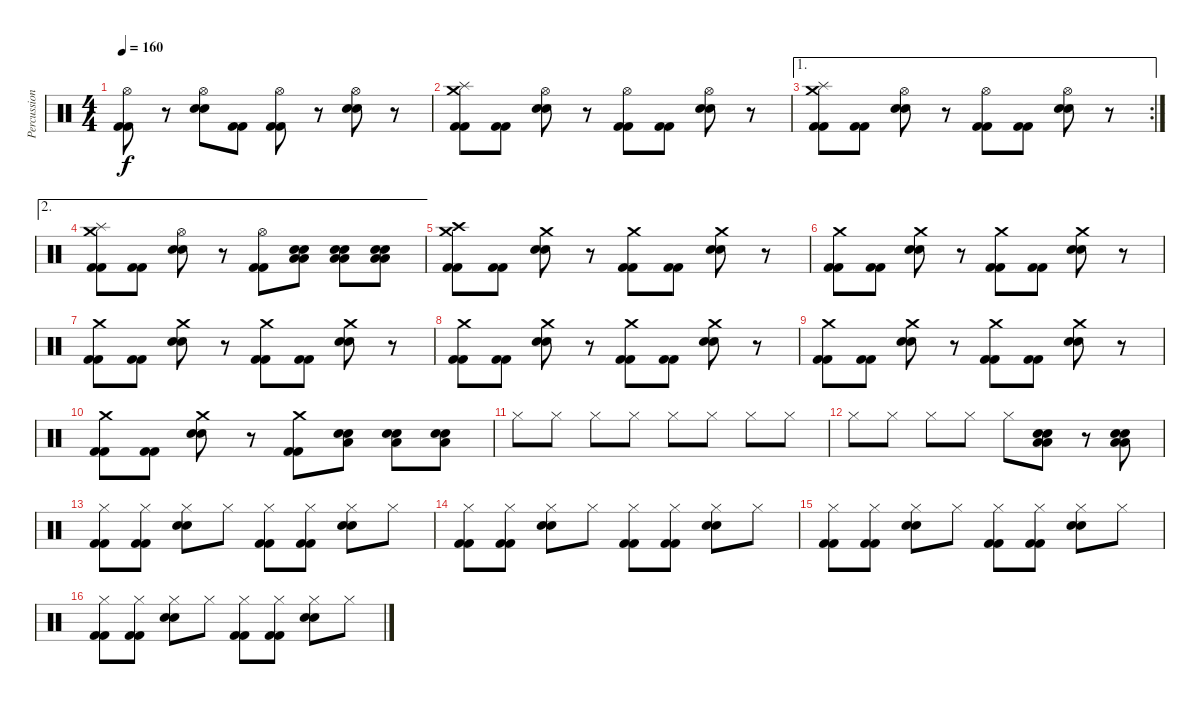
\track ("Percussion" "Percussion") {instrument percussion}
\staff {score}
\articulation defaults
\ts (4 4)
\tempo 160
\clef neutral
\ks c
("Hi-Hat (open)" "Kick (hit) 2" "Kick (hit) 2").8{dy f} r.8 ("Hi-Hat (open)" "Snare (hit) 2" "Snare (hit) 2").8 ("Kick (hit) 2" "Kick (hit) 2").8 ("Hi-Hat (open)" "Kick (hit) 2" "Kick (hit) 2").8 r.8 ("Hi-Hat (open)" "Snare (hit) 2" "Snare (hit) 2").8 r.8 |
("Crash medium (hit)" "Splash (hit)" "Kick (hit) 2" "Kick (hit) 2").8 ("Kick (hit) 2" "Kick (hit) 2").8 ("Hi-Hat (open)" "Snare (hit) 2" "Snare (hit) 2").8 r.8 ("Hi-Hat (open)" "Kick (hit) 2" "Kick (hit) 2").8 ("Kick (hit) 2" "Kick (hit) 2").8 ("Hi-Hat (open)" "Snare (hit) 2" "Snare (hit) 2").8 r.8 |
\ae 1
\rc 2
("Crash medium (hit)" "Splash (hit)" "Kick (hit) 2" "Kick (hit) 2").8 ("Kick (hit) 2" "Kick (hit) 2").8 ("Hi-Hat (open)" "Snare (hit) 2" "Snare (hit) 2").8 r.8 ("Hi-Hat (open)" "Kick (hit) 2" "Kick (hit) 2").8 ("Kick (hit) 2" "Kick (hit) 2").8 ("Hi-Hat (open)" "Snare (hit) 2" "Snare (hit) 2").8 r.8 |
\ae 2
("Crash medium (hit)" "Splash (hit)" "Kick (hit) 2" "Kick (hit) 2").8 ("Kick (hit) 2" "Kick (hit) 2").8 ("Hi-Hat (open)" "Snare (hit) 2" "Snare (hit) 2").8 r.8 ("Hi-Hat (open)" "Kick (hit) 2" "Kick (hit) 2").8 ("Low Floor Tom (hit)" "Low Floor Tom (hit)" "Snare (hit) 2" "Snare (hit) 2").8 ("Low Floor Tom (hit)" "Low Floor Tom (hit)" "Snare (hit) 2" "Snare (hit) 2").8 ("Low Floor Tom (hit)" "Low Floor Tom (hit)" "Snare (hit) 2" "Snare (hit) 2").8 |
("Crash medium (hit)" "Crash high (hit)" "Kick (hit) 2" "Kick (hit) 2").8 ("Kick (hit) 2" "Kick (hit) 2").8 ("Crash medium (hit)" "Snare (hit) 2" "Snare (hit) 2").8 r.8 ("Crash medium (hit)" "Kick (hit) 2" "Kick (hit) 2").8 ("Kick (hit) 2" "Kick (hit) 2").8 ("Crash medium (hit)" "Snare (hit) 2" "Snare (hit) 2").8 r.8 |
("Crash medium (hit)" "Kick (hit) 2" "Kick (hit) 2").8 ("Kick (hit) 2" "Kick (hit) 2").8 ("Crash medium (hit)" "Snare (hit) 2" "Snare (hit) 2").8 r.8 ("Crash medium (hit)" "Kick (hit) 2" "Kick (hit) 2").8 ("Kick (hit) 2" "Kick (hit) 2").8 ("Crash medium (hit)" "Snare (hit) 2" "Snare (hit) 2").8 r.8 |
("Crash medium (hit)" "Kick (hit) 2" "Kick (hit) 2").8 ("Kick (hit) 2" "Kick (hit) 2").8 ("Crash medium (hit)" "Snare (hit) 2" "Snare (hit) 2").8 r.8 ("Crash medium (hit)" "Kick (hit) 2" "Kick (hit) 2").8 ("Kick (hit) 2" "Kick (hit) 2").8 ("Crash medium (hit)" "Snare (hit) 2" "Snare (hit) 2").8 r.8 |
("Crash medium (hit)" "Kick (hit) 2" "Kick (hit) 2").8 ("Kick (hit) 2" "Kick (hit) 2").8 ("Crash medium (hit)" "Snare (hit) 2" "Snare (hit) 2").8 r.8 ("Crash medium (hit)" "Kick (hit) 2" "Kick (hit) 2").8 ("Kick (hit) 2" "Kick (hit) 2").8 ("Crash medium (hit)" "Snare (hit) 2" "Snare (hit) 2").8 r.8 |
("Crash medium (hit)" "Kick (hit) 2" "Kick (hit) 2").8 ("Kick (hit) 2" "Kick (hit) 2").8 ("Crash medium (hit)" "Snare (hit) 2" "Snare (hit) 2").8 r.8 ("Crash medium (hit)" "Kick (hit) 2" "Kick (hit) 2").8 ("Kick (hit) 2" "Kick (hit) 2").8 ("Crash medium (hit)" "Snare (hit) 2" "Snare (hit) 2").8 r.8 |
("Crash medium (hit)" "Kick (hit) 2" "Kick (hit) 2").8 ("Kick (hit) 2" "Kick (hit) 2").8 ("Crash medium (hit)" "Snare (hit) 2" "Snare (hit) 2").8 r.8 ("Crash medium (hit)" "Kick (hit) 2" "Kick (hit) 2").8 ("Low Floor Tom (hit)" "Snare (hit) 2" "Snare (hit) 2").8 ("Low Floor Tom (hit)" "Snare (hit) 2" "Snare (hit) 2").8 ("Low Floor Tom (hit)" "Snare (hit) 2" "Snare (hit) 2").8 |
"Hi-Hat (closed)".8 "Hi-Hat (closed)".8 "Hi-Hat (closed)".8 "Hi-Hat (closed)".8 "Hi-Hat (closed)".8 "Hi-Hat (closed)".8 "Hi-Hat (closed)".8 "Hi-Hat (closed)".8 |
"Hi-Hat (closed)".8 "Hi-Hat (closed)".8 "Hi-Hat (closed)".8 "Hi-Hat (closed)".8 "Hi-Hat (closed)".8 ("Low Floor Tom (hit)" "Low Floor Tom (hit)" "Snare (hit) 2" "Snare (hit) 2").8 r.8 ("Low Floor Tom (hit)" "Low Floor Tom (hit)" "Snare (hit) 2" "Snare (hit) 2").8 |
("Hi-Hat (closed)" "Kick (hit) 2" "Kick (hit) 2").8 ("Hi-Hat (closed)" "Kick (hit) 2" "Kick (hit) 2").8 ("Hi-Hat (closed)" "Snare (hit) 2" "Snare (hit) 2").8 "Hi-Hat (closed)".8 ("Hi-Hat (closed)" "Kick (hit) 2" "Kick (hit) 2").8 ("Hi-Hat (closed)" "Kick (hit) 2" "Kick (hit) 2").8 ("Hi-Hat (closed)" "Snare (hit) 2" "Snare (hit) 2").8 "Hi-Hat (closed)".8 |
("Hi-Hat (closed)" "Kick (hit) 2" "Kick (hit) 2").8 ("Hi-Hat (closed)" "Kick (hit) 2" "Kick (hit) 2").8 ("Hi-Hat (closed)" "Snare (hit) 2" "Snare (hit) 2").8 "Hi-Hat (closed)".8 ("Hi-Hat (closed)" "Kick (hit) 2" "Kick (hit) 2").8 ("Hi-Hat (closed)" "Kick (hit) 2" "Kick (hit) 2").8 ("Hi-Hat (closed)" "Snare (hit) 2" "Snare (hit) 2").8 "Hi-Hat (closed)".8 |
("Hi-Hat (closed)" "Kick (hit) 2" "Kick (hit) 2").8 ("Hi-Hat (closed)" "Kick (hit) 2" "Kick (hit) 2").8 ("Hi-Hat (closed)" "Snare (hit) 2" "Snare (hit) 2").8 "Hi-Hat (closed)".8 ("Hi-Hat (closed)" "Kick (hit) 2" "Kick (hit) 2").8 ("Hi-Hat (closed)" "Kick (hit) 2" "Kick (hit) 2").8 ("Hi-Hat (closed)" "Snare (hit) 2" "Snare (hit) 2").8 "Hi-Hat (closed)".8 |
("Hi-Hat (closed)" "Kick (hit) 2" "Kick (hit) 2").8 ("Hi-Hat (closed)" "Kick (hit) 2" "Kick (hit) 2").8 ("Hi-Hat (closed)" "Snare (hit) 2" "Snare (hit) 2").8 "Hi-Hat (closed)".8 ("Hi-Hat (closed)" "Kick (hit) 2" "Kick (hit) 2").8 ("Hi-Hat (closed)" "Kick (hit) 2" "Kick (hit) 2").8 ("Hi-Hat (closed)" "Snare (hit) 2" "Snare (hit) 2").8 "Hi-Hat (closed)".8
